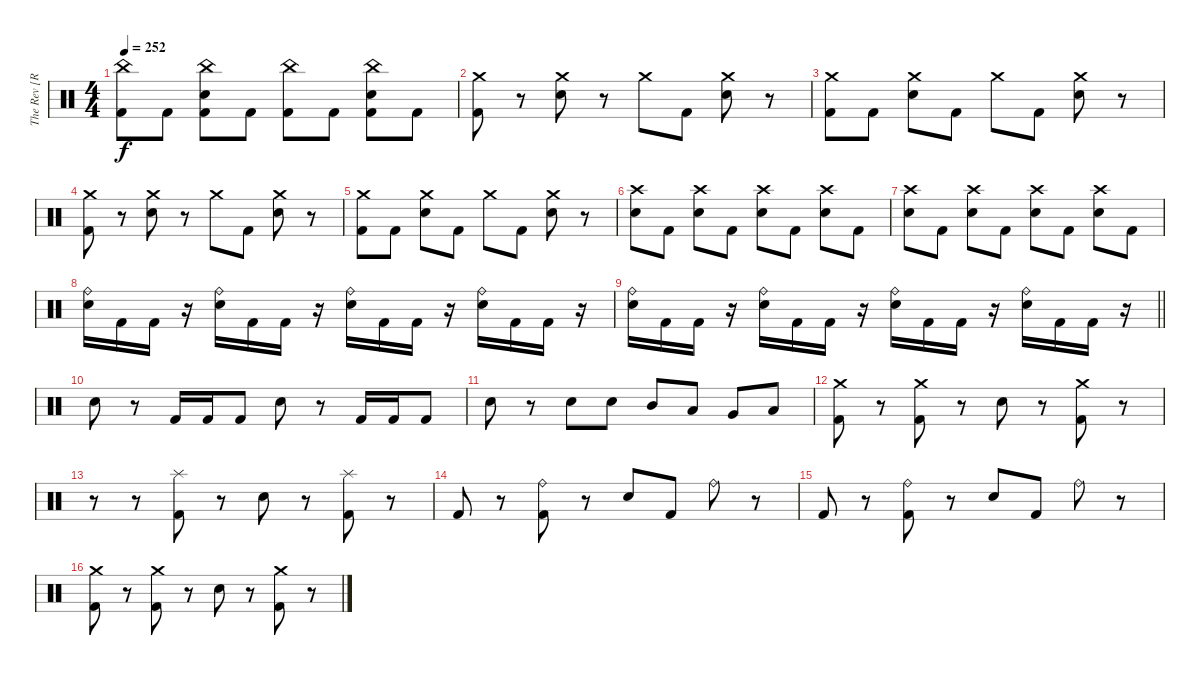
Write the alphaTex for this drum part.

\track ("The Rev [R.I.P]" "The Rev [R") {instrument percussion}
\staff {score}
\articulation defaults
\ts (4 4)
\tempo 252
\clef neutral
\ks c
("China (hit)" "Kick (hit) 2").8{dy f} "Kick (hit) 2".8 ("China (hit)" "Electric Snare (hit)" "Kick (hit) 2").8 "Kick (hit) 2".8 ("China (hit)" "Kick (hit) 2").8 "Kick (hit) 2".8 ("China (hit)" "Electric Snare (hit)" "Kick (hit) 2").8 "Kick (hit) 2".8 |
("Crash medium (hit)" "Kick (hit) 2").8 r.8 ("Crash medium (hit)" "Electric Snare (hit)").8 r.8 "Crash medium (hit)".8 "Kick (hit) 2".8 ("Crash medium (hit)" "Electric Snare (hit)").8 r.8 |
("Crash medium (hit)" "Kick (hit) 2").8 "Kick (hit) 2".8 ("Crash medium (hit)" "Electric Snare (hit)").8 "Kick (hit) 2".8 "Crash medium (hit)".8 "Kick (hit) 2".8 ("Crash medium (hit)" "Electric Snare (hit)").8 r.8 |
("Crash medium (hit)" "Kick (hit) 2").8 r.8 ("Crash medium (hit)" "Electric Snare (hit)").8 r.8 "Crash medium (hit)".8 "Kick (hit) 2".8 ("Crash medium (hit)" "Electric Snare (hit)").8 r.8 |
("Crash medium (hit)" "Kick (hit) 2").8 "Kick (hit) 2".8 ("Crash medium (hit)" "Electric Snare (hit)").8 "Kick (hit) 2".8 "Crash medium (hit)".8 "Kick (hit) 2".8 ("Crash medium (hit)" "Electric Snare (hit)").8 r.8 |
("Crash high (hit)" "Electric Snare (hit)").8 "Kick (hit) 2".8 ("Crash high (hit)" "Electric Snare (hit)").8 "Kick (hit) 2".8 ("Crash high (hit)" "Electric Snare (hit)").8 "Kick (hit) 2".8 ("Crash high (hit)" "Electric Snare (hit)").8 "Kick (hit) 2".8 |
("Crash high (hit)" "Electric Snare (hit)").8 "Kick (hit) 2".8 ("Crash high (hit)" "Electric Snare (hit)").8 "Kick (hit) 2".8 ("Crash high (hit)" "Electric Snare (hit)").8 "Kick (hit) 2".8 ("Crash high (hit)" "Electric Snare (hit)").8 "Kick (hit) 2".8 |
("Ride (bell)" "Electric Snare (hit)").16 "Kick (hit) 2".16 "Kick (hit) 2".16 r.16 ("Ride (bell)" "Electric Snare (hit)").16 "Kick (hit) 2".16 "Kick (hit) 2".16 r.16 ("Ride (bell)" "Electric Snare (hit)").16 "Kick (hit) 2".16 "Kick (hit) 2".16 r.16 ("Ride (bell)" "Electric Snare (hit)").16 "Kick (hit) 2".16 "Kick (hit) 2".16 r.16 |
\barLineRight lightlight
("Ride (bell)" "Electric Snare (hit)").16 "Kick (hit) 2".16 "Kick (hit) 2".16 r.16 ("Ride (bell)" "Electric Snare (hit)").16 "Kick (hit) 2".16 "Kick (hit) 2".16 r.16 ("Ride (bell)" "Electric Snare (hit)").16 "Kick (hit) 2".16 "Kick (hit) 2".16 r.16 ("Ride (bell)" "Electric Snare (hit)").16 "Kick (hit) 2".16 "Kick (hit) 2".16 r.16 |
"Electric Snare (hit)".8 r.8 "Kick (hit) 2".16 "Kick (hit) 2".16 "Kick (hit) 2".8 "Electric Snare (hit)".8 r.8 "Kick (hit) 2".16 "Kick (hit) 2".16 "Kick (hit) 2".8 |
"Electric Snare (hit)".8 r.8 "Electric Snare (hit)".8 "Electric Snare (hit)".8 "Mid Tom (hit)".8 "Low Tom (hit)".8 "Very Low Tom (hit)".8 "Low Floor Tom (hit)".8 |
("Crash medium (hit)" "Kick (hit) 2").8 r.8 ("Crash medium (hit)" "Kick (hit) 2").8 r.8 "Electric Snare (hit)".8 r.8 ("Crash medium (hit)" "Kick (hit) 2").8 r.8 |
r.8 r.8 ("Splash (hit)" "Kick (hit) 2").8 r.8 "Electric Snare (hit)".8 r.8 ("Splash (hit)" "Kick (hit) 2").8 r.8 |
"Kick (hit) 2".8 r.8 ("Ride (bell)" "Kick (hit) 2").8 r.8 "Electric Snare (hit)".8 "Kick (hit) 2".8 "Ride (bell)".8 r.8 |
"Kick (hit) 2".8 r.8 ("Ride (bell)" "Kick (hit) 2").8 r.8 "Electric Snare (hit)".8 "Kick (hit) 2".8 "Ride (bell)".8 r.8 |
("Crash medium (hit)" "Kick (hit) 2").8 r.8 ("Crash medium (hit)" "Kick (hit) 2").8 r.8 "Electric Snare (hit)".8 r.8 ("Crash medium (hit)" "Kick (hit) 2").8 r.8
